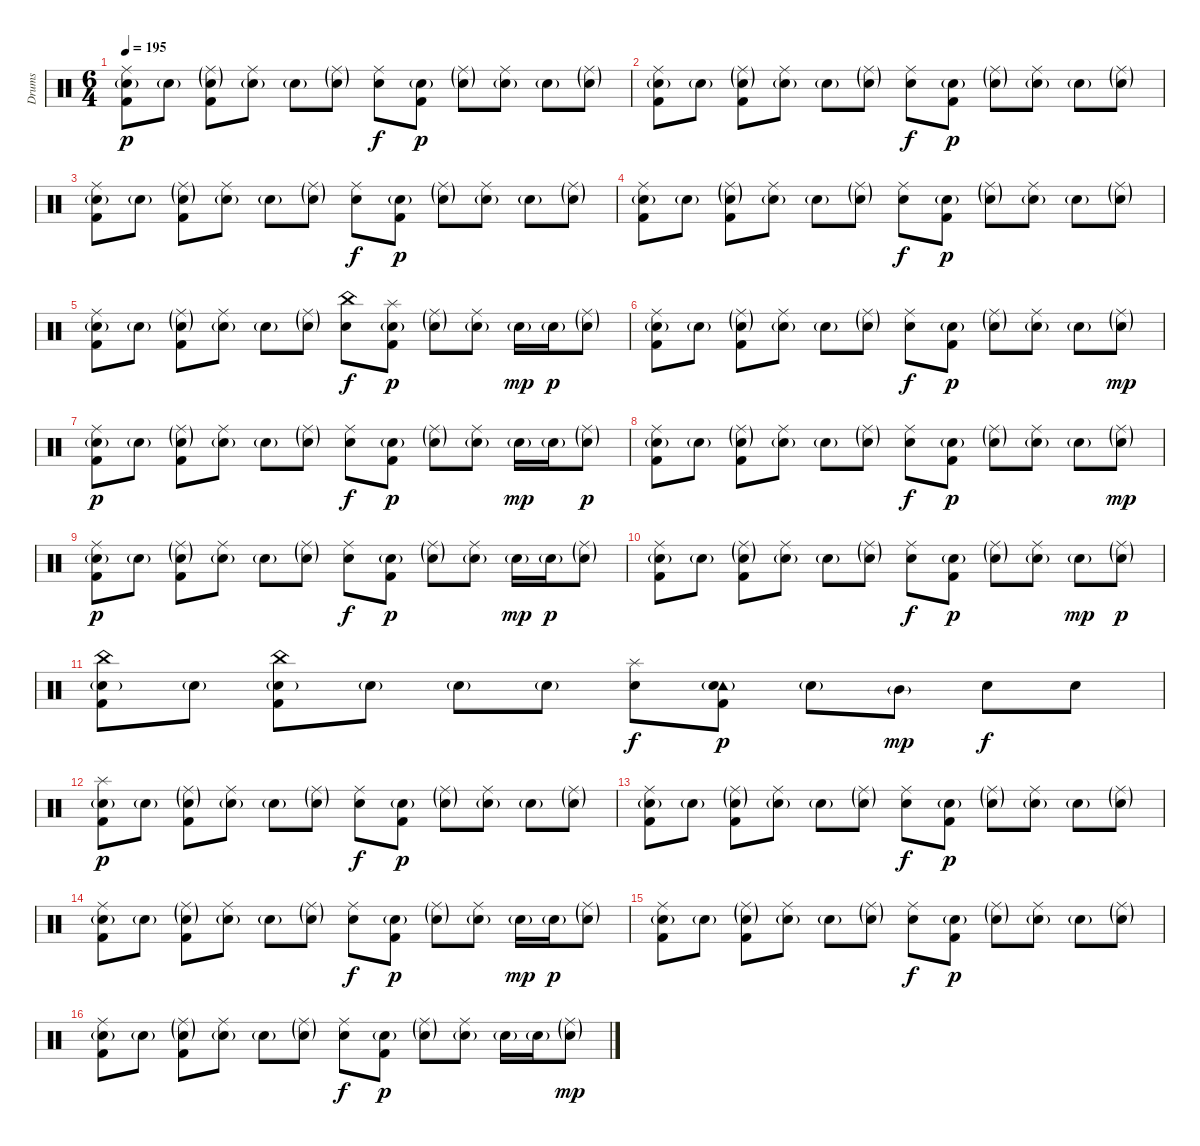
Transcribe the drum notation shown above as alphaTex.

\track ("Drums" "Drums") {instrument percussion}
\staff {score}
\articulation defaults
\ts (6 4)
\tempo 195
\clef neutral
\ks c
("Ride (middle)" "Electric Snare (hit)"{g} "Kick (hit) 2").8{dy p} "Electric Snare (hit)"{g}.8 ("Ride (middle)"{g} "Electric Snare (hit)"{g} "Kick (hit) 2").8 ("Ride (middle)" "Electric Snare (hit)"{g}).8 "Electric Snare (hit)"{g}.8 ("Ride (middle)"{g} "Electric Snare (hit)"{g}).8 ("Ride (middle)" "Electric Snare (hit)").8{dy f} ("Electric Snare (hit)"{g} "Kick (hit) 2").8{dy p} ("Ride (middle)"{g} "Electric Snare (hit)"{g}).8 ("Ride (middle)" "Electric Snare (hit)"{g}).8 "Electric Snare (hit)"{g}.8 ("Ride (middle)"{g} "Electric Snare (hit)"{g}).8 |
("Ride (middle)" "Electric Snare (hit)"{g} "Kick (hit) 2").8 "Electric Snare (hit)"{g}.8 ("Ride (middle)"{g} "Electric Snare (hit)"{g} "Kick (hit) 2").8 ("Ride (middle)" "Electric Snare (hit)"{g}).8 "Electric Snare (hit)"{g}.8 ("Ride (middle)"{g} "Electric Snare (hit)"{g}).8 ("Ride (middle)" "Electric Snare (hit)").8{dy f} ("Electric Snare (hit)"{g} "Kick (hit) 2").8{dy p} ("Ride (middle)"{g} "Electric Snare (hit)"{g}).8 ("Ride (middle)" "Electric Snare (hit)"{g}).8 "Electric Snare (hit)"{g}.8 ("Ride (middle)"{g} "Electric Snare (hit)"{g}).8 |
("Ride (middle)" "Electric Snare (hit)"{g} "Kick (hit) 2").8 "Electric Snare (hit)"{g}.8 ("Ride (middle)"{g} "Electric Snare (hit)"{g} "Kick (hit) 2").8 ("Ride (middle)" "Electric Snare (hit)"{g}).8 "Electric Snare (hit)"{g}.8 ("Ride (middle)"{g} "Electric Snare (hit)"{g}).8 ("Ride (middle)" "Electric Snare (hit)").8{dy f} ("Electric Snare (hit)"{g} "Kick (hit) 2").8{dy p} ("Ride (middle)"{g} "Electric Snare (hit)"{g}).8 ("Ride (middle)" "Electric Snare (hit)"{g}).8 "Electric Snare (hit)"{g}.8 ("Ride (middle)"{g} "Electric Snare (hit)"{g}).8 |
("Ride (middle)" "Electric Snare (hit)"{g} "Kick (hit) 2").8 "Electric Snare (hit)"{g}.8 ("Ride (middle)"{g} "Electric Snare (hit)"{g} "Kick (hit) 2").8 ("Ride (middle)" "Electric Snare (hit)"{g}).8 "Electric Snare (hit)"{g}.8 ("Ride (middle)"{g} "Electric Snare (hit)"{g}).8 ("Ride (middle)" "Electric Snare (hit)").8{dy f} ("Electric Snare (hit)"{g} "Kick (hit) 2").8{dy p} ("Ride (middle)"{g} "Electric Snare (hit)"{g}).8 ("Ride (middle)" "Electric Snare (hit)"{g}).8 "Electric Snare (hit)"{g}.8 ("Ride (middle)"{g} "Electric Snare (hit)"{g}).8 |
("Ride (middle)" "Electric Snare (hit)"{g} "Kick (hit) 2").8 "Electric Snare (hit)"{g}.8 ("Ride (middle)"{g} "Electric Snare (hit)"{g} "Kick (hit) 2").8 ("Ride (middle)" "Electric Snare (hit)"{g}).8 "Electric Snare (hit)"{g}.8 ("Ride (middle)"{g} "Electric Snare (hit)"{g}).8 ("China (hit)" "Electric Snare (hit)").8{dy f} ("Splash (hit)" "Electric Snare (hit)"{g} "Kick (hit) 2").8{dy p} ("Ride (middle)"{g} "Electric Snare (hit)"{g}).8 ("Ride (middle)" "Electric Snare (hit)"{g}).8 "Electric Snare (hit)"{g}.16{dy mp} "Electric Snare (hit)"{g}.16{dy p} ("Ride (middle)"{g} "Electric Snare (hit)"{g}).8 |
("Ride (middle)" "Electric Snare (hit)"{g} "Kick (hit) 2").8 "Electric Snare (hit)"{g}.8 ("Ride (middle)"{g} "Electric Snare (hit)"{g} "Kick (hit) 2").8 ("Ride (middle)" "Electric Snare (hit)"{g}).8 "Electric Snare (hit)"{g}.8 ("Ride (middle)"{g} "Electric Snare (hit)"{g}).8 ("Ride (middle)" "Electric Snare (hit)").8{dy f} ("Electric Snare (hit)"{g} "Kick (hit) 2").8{dy p} ("Ride (middle)"{g} "Electric Snare (hit)"{g}).8 ("Ride (middle)" "Electric Snare (hit)"{g}).8 "Electric Snare (hit)"{g}.8 ("Ride (middle)"{g} "Electric Snare (hit)"{g}).8{dy mp} |
("Ride (middle)" "Electric Snare (hit)"{g} "Kick (hit) 2").8{dy p} "Electric Snare (hit)"{g}.8 ("Ride (middle)"{g} "Electric Snare (hit)"{g} "Kick (hit) 2").8 ("Ride (middle)" "Electric Snare (hit)"{g}).8 "Electric Snare (hit)"{g}.8 ("Ride (middle)"{g} "Electric Snare (hit)"{g}).8 ("Ride (middle)" "Electric Snare (hit)").8{dy f} ("Electric Snare (hit)"{g} "Kick (hit) 2").8{dy p} ("Ride (middle)"{g} "Electric Snare (hit)"{g}).8 ("Ride (middle)" "Electric Snare (hit)"{g}).8 "Electric Snare (hit)"{g}.16{dy mp} "Electric Snare (hit)"{g}.16 ("Ride (middle)"{g} "Electric Snare (hit)"{g}).8{dy p} |
("Ride (middle)" "Electric Snare (hit)"{g} "Kick (hit) 2").8 "Electric Snare (hit)"{g}.8 ("Ride (middle)"{g} "Electric Snare (hit)"{g} "Kick (hit) 2").8 ("Ride (middle)" "Electric Snare (hit)"{g}).8 "Electric Snare (hit)"{g}.8 ("Ride (middle)"{g} "Electric Snare (hit)"{g}).8 ("Ride (middle)" "Electric Snare (hit)").8{dy f} ("Electric Snare (hit)"{g} "Kick (hit) 2").8{dy p} ("Ride (middle)"{g} "Electric Snare (hit)"{g}).8 ("Ride (middle)" "Electric Snare (hit)"{g}).8 "Electric Snare (hit)"{g}.8 ("Ride (middle)"{g} "Electric Snare (hit)"{g}).8{dy mp} |
("Ride (middle)" "Electric Snare (hit)"{g} "Kick (hit) 2").8{dy p} "Electric Snare (hit)"{g}.8 ("Ride (middle)"{g} "Electric Snare (hit)"{g} "Kick (hit) 2").8 ("Ride (middle)" "Electric Snare (hit)"{g}).8 "Electric Snare (hit)"{g}.8 ("Ride (middle)"{g} "Electric Snare (hit)"{g}).8 ("Ride (middle)" "Electric Snare (hit)").8{dy f} ("Electric Snare (hit)"{g} "Kick (hit) 2").8{dy p} ("Ride (middle)"{g} "Electric Snare (hit)"{g}).8 ("Ride (middle)" "Electric Snare (hit)"{g}).8 "Electric Snare (hit)"{g}.16{dy mp} "Electric Snare (hit)"{g}.16{dy p} ("Ride (middle)"{g} "Electric Snare (hit)"{g}).8 |
("Ride (middle)" "Electric Snare (hit)"{g} "Kick (hit) 2").8 "Electric Snare (hit)"{g}.8 ("Ride (middle)"{g} "Electric Snare (hit)"{g} "Kick (hit) 2").8 ("Ride (middle)" "Electric Snare (hit)"{g}).8 "Electric Snare (hit)"{g}.8 ("Ride (middle)"{g} "Electric Snare (hit)"{g}).8 ("Ride (middle)" "Electric Snare (hit)").8{dy f} ("Electric Snare (hit)"{g} "Kick (hit) 2").8{dy p} ("Ride (middle)"{g} "Electric Snare (hit)"{g}).8 ("Ride (middle)" "Electric Snare (hit)"{g}).8 "Electric Snare (hit)"{g}.8{dy mp} ("Ride (middle)"{g} "Electric Snare (hit)"{g}).8{dy p} |
("China (hit)" "Electric Snare (hit)"{g} "Kick (hit) 2").8 "Electric Snare (hit)"{g}.8 ("China (hit)" "Electric Snare (hit)"{g} "Kick (hit) 2").8 "Electric Snare (hit)"{g}.8 "Electric Snare (hit)"{g}.8 "Electric Snare (hit)"{g}.8 ("Splash (hit)" "Electric Snare (hit)").8{dy f} ("Tambourine (hit)" "Electric Snare (hit)"{g} "Kick (hit) 2").8{dy p} "Electric Snare (hit)"{g}.8 "Mid Tom (hit)"{g}.8{dy mp} "Electric Snare (hit)".8{dy f} "Electric Snare (hit)".8 |
("Splash (hit)" "Electric Snare (hit)"{g} "Kick (hit) 2").8{dy p} "Electric Snare (hit)"{g}.8 ("Ride (middle)"{g} "Electric Snare (hit)"{g} "Kick (hit) 2").8 ("Ride (middle)" "Electric Snare (hit)"{g}).8 "Electric Snare (hit)"{g}.8 ("Ride (middle)"{g} "Electric Snare (hit)"{g}).8 ("Ride (middle)" "Electric Snare (hit)").8{dy f} ("Electric Snare (hit)"{g} "Kick (hit) 2").8{dy p} ("Ride (middle)"{g} "Electric Snare (hit)"{g}).8 ("Ride (middle)" "Electric Snare (hit)"{g}).8 "Electric Snare (hit)"{g}.8 ("Ride (middle)"{g} "Electric Snare (hit)"{g}).8 |
("Ride (middle)" "Electric Snare (hit)"{g} "Kick (hit) 2").8 "Electric Snare (hit)"{g}.8 ("Ride (middle)"{g} "Electric Snare (hit)"{g} "Kick (hit) 2").8 ("Ride (middle)" "Electric Snare (hit)"{g}).8 "Electric Snare (hit)"{g}.8 ("Ride (middle)"{g} "Electric Snare (hit)"{g}).8 ("Ride (middle)" "Electric Snare (hit)").8{dy f} ("Electric Snare (hit)"{g} "Kick (hit) 2").8{dy p} ("Ride (middle)"{g} "Electric Snare (hit)"{g}).8 ("Ride (middle)" "Electric Snare (hit)"{g}).8 "Electric Snare (hit)"{g}.8 ("Ride (middle)"{g} "Electric Snare (hit)"{g}).8 |
("Ride (middle)" "Electric Snare (hit)"{g} "Kick (hit) 2").8 "Electric Snare (hit)"{g}.8 ("Ride (middle)"{g} "Electric Snare (hit)"{g} "Kick (hit) 2").8 ("Ride (middle)" "Electric Snare (hit)"{g}).8 "Electric Snare (hit)"{g}.8 ("Ride (middle)"{g} "Electric Snare (hit)"{g}).8 ("Ride (middle)" "Electric Snare (hit)").8{dy f} ("Electric Snare (hit)"{g} "Kick (hit) 2").8{dy p} ("Ride (middle)"{g} "Electric Snare (hit)"{g}).8 ("Ride (middle)" "Electric Snare (hit)"{g}).8 "Electric Snare (hit)"{g}.16{dy mp} "Electric Snare (hit)"{g}.16{dy p} ("Ride (middle)"{g} "Electric Snare (hit)"{g}).8 |
("Ride (middle)" "Electric Snare (hit)"{g} "Kick (hit) 2").8 "Electric Snare (hit)"{g}.8 ("Ride (middle)"{g} "Electric Snare (hit)"{g} "Kick (hit) 2").8 ("Ride (middle)" "Electric Snare (hit)"{g}).8 "Electric Snare (hit)"{g}.8 ("Ride (middle)"{g} "Electric Snare (hit)"{g}).8 ("Ride (middle)" "Electric Snare (hit)").8{dy f} ("Electric Snare (hit)"{g} "Kick (hit) 2").8{dy p} ("Ride (middle)"{g} "Electric Snare (hit)"{g}).8 ("Ride (middle)" "Electric Snare (hit)"{g}).8 "Electric Snare (hit)"{g}.8 ("Ride (middle)"{g} "Electric Snare (hit)"{g}).8 |
("Ride (middle)" "Electric Snare (hit)"{g} "Kick (hit) 2").8 "Electric Snare (hit)"{g}.8 ("Ride (middle)"{g} "Electric Snare (hit)"{g} "Kick (hit) 2").8 ("Ride (middle)" "Electric Snare (hit)"{g}).8 "Electric Snare (hit)"{g}.8 ("Ride (middle)"{g} "Electric Snare (hit)"{g}).8 ("Ride (middle)" "Electric Snare (hit)").8{dy f} ("Electric Snare (hit)"{g} "Kick (hit) 2").8{dy p} ("Ride (middle)"{g} "Electric Snare (hit)"{g}).8 ("Ride (middle)" "Electric Snare (hit)"{g}).8 "Electric Snare (hit)"{g}.16 "Electric Snare (hit)"{g}.16 ("Ride (middle)"{g} "Electric Snare (hit)"{g}).8{dy mp}
